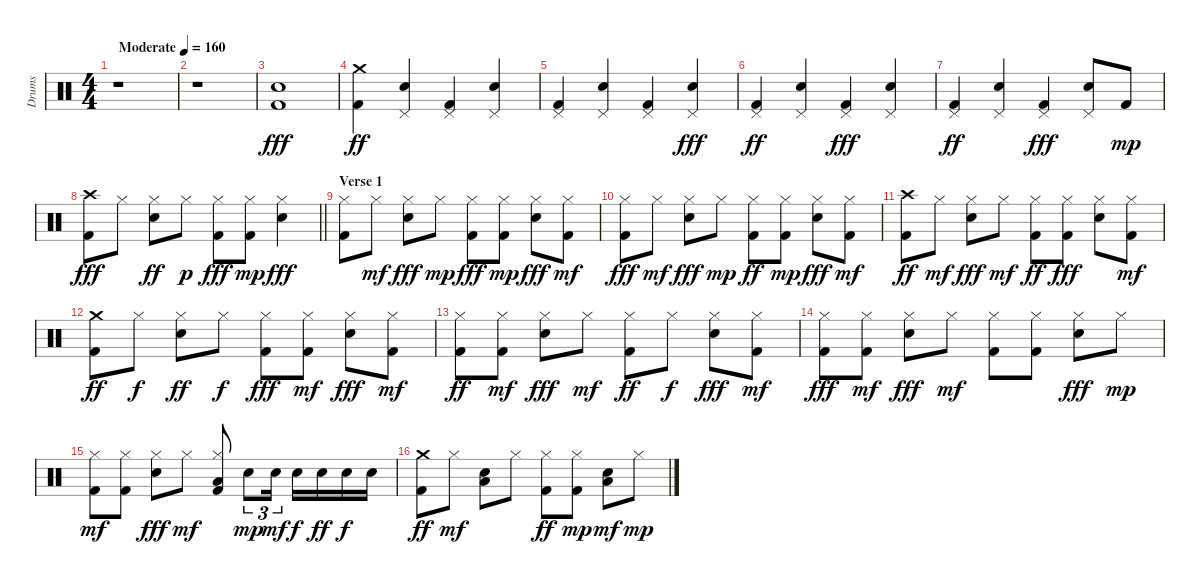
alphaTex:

\track ("Drums" "Drums") {instrument percussion}
\staff {score}
\articulation defaults
\ts (4 4)
\tempo (160 "Moderate")
\clef neutral
\ks c
r.1{dy fff} |
r.1 |
("Kick (hit) 2" "Snare (hit) 2").1 |
("Kick (hit) 2" "Crash medium (hit)").4{dy ff} ("Electric Snare (hit)" "Pedal Hi-Hat (hit)").4 ("Kick (hit) 2" "Pedal Hi-Hat (hit)").4 ("Electric Snare (hit)" "Pedal Hi-Hat (hit)").4 |
("Kick (hit) 2" "Pedal Hi-Hat (hit)").4 ("Electric Snare (hit)" "Pedal Hi-Hat (hit)").4 ("Kick (hit) 2" "Pedal Hi-Hat (hit)").4 ("Electric Snare (hit)" "Pedal Hi-Hat (hit)").4{dy fff} |
("Kick (hit) 2" "Pedal Hi-Hat (hit)").4{dy ff} ("Electric Snare (hit)" "Pedal Hi-Hat (hit)").4 ("Kick (hit) 2" "Pedal Hi-Hat (hit)").4{dy fff} ("Electric Snare (hit)" "Pedal Hi-Hat (hit)").4 |
("Kick (hit) 2" "Pedal Hi-Hat (hit)").4{dy ff} ("Electric Snare (hit)" "Pedal Hi-Hat (hit)").4 ("Kick (hit) 2" "Pedal Hi-Hat (hit)").4{dy fff} ("Electric Snare (hit)" "Pedal Hi-Hat (hit)").8 "Kick (hit) 2".8{dy mp} |
\barLineRight lightlight
("Kick (hit) 2" "Crash high (hit)").8{dy fff} "Hi-Hat (closed)".8 ("Electric Snare (hit)" "Hi-Hat (closed)").8{dy ff} "Hi-Hat (closed)".8{dy p} ("Kick (hit) 2" "Hi-Hat (closed)").8{dy fff} ("Kick (hit) 2" "Hi-Hat (closed)").8{dy mp} ("Electric Snare (hit)" "Hi-Hat (closed)").4{dy fff} |
\section ("" "Verse 1")
("Kick (hit) 2" "Hi-Hat (closed)").8 "Hi-Hat (closed)".8{dy mf} ("Electric Snare (hit)" "Hi-Hat (closed)").8{dy fff} "Hi-Hat (closed)".8{dy mp} ("Kick (hit) 2" "Hi-Hat (closed)").8{dy fff} ("Kick (hit) 2" "Hi-Hat (closed)").8{dy mp} ("Electric Snare (hit)" "Hi-Hat (closed)").8{dy fff} ("Kick (hit) 2" "Hi-Hat (closed)").8{dy mf} |
("Kick (hit) 2" "Hi-Hat (closed)").8{dy fff} "Hi-Hat (closed)".8{dy mf} ("Electric Snare (hit)" "Hi-Hat (closed)").8{dy fff} "Hi-Hat (closed)".8{dy mp} ("Kick (hit) 2" "Hi-Hat (closed)").8{dy ff} ("Kick (hit) 2" "Hi-Hat (closed)").8{dy mp} ("Electric Snare (hit)" "Hi-Hat (closed)").8{dy fff} ("Kick (hit) 2" "Hi-Hat (closed)").8{dy mf} |
("Kick (hit) 2" "Crash high (hit)").8{dy ff} "Hi-Hat (closed)".8{dy mf} ("Electric Snare (hit)" "Hi-Hat (closed)").8{dy fff} "Hi-Hat (closed)".8{dy mf} ("Kick (hit) 2" "Hi-Hat (closed)").8{dy ff} ("Kick (hit) 2" "Hi-Hat (closed)").8{dy fff} ("Electric Snare (hit)" "Hi-Hat (closed)").8 ("Kick (hit) 2" "Hi-Hat (closed)").8{dy mf} |
("Kick (hit) 2" "Crash medium (hit)").8{dy ff} "Hi-Hat (closed)".8{dy f} ("Electric Snare (hit)" "Hi-Hat (closed)").8{dy ff} "Hi-Hat (closed)".8{dy f} ("Kick (hit) 2" "Hi-Hat (closed)").8{dy fff} ("Kick (hit) 2" "Hi-Hat (closed)").8{dy mf} ("Electric Snare (hit)" "Hi-Hat (closed)").8{dy fff} ("Kick (hit) 2" "Hi-Hat (closed)").8{dy mf} |
("Kick (hit) 2" "Hi-Hat (closed)").8{dy ff} ("Kick (hit) 2" "Hi-Hat (closed)").8{dy mf} ("Electric Snare (hit)" "Hi-Hat (closed)").8{dy fff} "Hi-Hat (closed)".8{dy mf} ("Kick (hit) 2" "Hi-Hat (closed)").8{dy ff} "Hi-Hat (closed)".8{dy f} ("Electric Snare (hit)" "Hi-Hat (closed)").8{dy fff} ("Kick (hit) 2" "Hi-Hat (closed)").8{dy mf} |
("Kick (hit) 2" "Hi-Hat (closed)").8{dy fff} ("Kick (hit) 2" "Hi-Hat (closed)").8{dy mf} ("Electric Snare (hit)" "Hi-Hat (closed)").8{dy fff} "Hi-Hat (closed)".8{dy mf} ("Kick (hit) 2" "Hi-Hat (closed)").8 ("Kick (hit) 2" "Hi-Hat (closed)").8 ("Electric Snare (hit)" "Hi-Hat (closed)").8{dy fff} "Hi-Hat (closed)".8{dy mp} |
("Kick (hit) 2" "Hi-Hat (closed)").8{dy mf} ("Kick (hit) 2" "Hi-Hat (closed)").8 ("Electric Snare (hit)" "Hi-Hat (closed)").8{dy fff} "Hi-Hat (closed)".8{dy mf} ("Kick (hit) 2" "Hi-Hat (closed)" "Low Tom (hit)").8 "Electric Snare (hit)".8{tu (3 2) dy mp} "Electric Snare (hit)".16{tu (3 2) dy mf} "Electric Snare (hit)".16{dy f} "Electric Snare (hit)".16{dy ff} "Electric Snare (hit)".16{dy f} "Electric Snare (hit)".16 |
("Kick (hit) 2" "Crash medium (hit)").8{dy ff} "Hi-Hat (closed)".8{dy mf} ("Electric Snare (hit)" "Low Tom (hit)").8 "Hi-Hat (closed)".8 ("Kick (hit) 2" "Hi-Hat (closed)").8{dy ff} ("Kick (hit) 2" "Hi-Hat (closed)").8{dy mp} ("Electric Snare (hit)" "Low Tom (hit)").8{dy mf} "Hi-Hat (closed)".8{dy mp}
